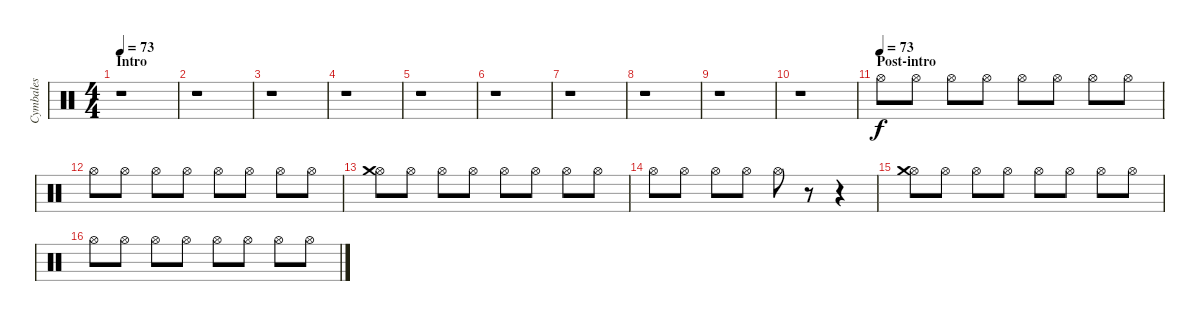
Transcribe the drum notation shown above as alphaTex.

\track ("Cymbales" "Cymbales") {instrument percussion}
\staff {score}
\articulation defaults
\ts (4 4)
\section ("" "Intro")
\tempo 73
\tempo 68
\tempo 73
\clef neutral
\ks c
r.1{dy f} |
r.1 |
r.1 |
r.1 |
r.1 |
r.1 |
r.1 |
r.1 |
r.1 |
r.1 |
\section ("" "Post-intro")
\tempo (73)
"Hi-Hat (open)".8 "Hi-Hat (open)".8 "Hi-Hat (open)".8 "Hi-Hat (open)".8 "Hi-Hat (open)".8 "Hi-Hat (open)".8 "Hi-Hat (open)".8 "Hi-Hat (open)".8 |
"Hi-Hat (open)".8 "Hi-Hat (open)".8 "Hi-Hat (open)".8 "Hi-Hat (open)".8 "Hi-Hat (open)".8 "Hi-Hat (open)".8 "Hi-Hat (open)".8 "Hi-Hat (open)".8 |
("Hi-Hat (open)" "Crash medium (hit)").8 "Hi-Hat (open)".8 "Hi-Hat (open)".8 "Hi-Hat (open)".8 "Hi-Hat (open)".8 "Hi-Hat (open)".8 "Hi-Hat (open)".8 "Hi-Hat (open)".8 |
"Hi-Hat (open)".8 "Hi-Hat (open)".8 "Hi-Hat (open)".8 "Hi-Hat (open)".8 "Hi-Hat (open)".8 r.8 r.4 |
("Hi-Hat (open)" "Crash medium (hit)").8 "Hi-Hat (open)".8 "Hi-Hat (open)".8 "Hi-Hat (open)".8 "Hi-Hat (open)".8 "Hi-Hat (open)".8 "Hi-Hat (open)".8 "Hi-Hat (open)".8 |
"Hi-Hat (open)".8 "Hi-Hat (open)".8 "Hi-Hat (open)".8 "Hi-Hat (open)".8 "Hi-Hat (open)".8 "Hi-Hat (open)".8 "Hi-Hat (open)".8 "Hi-Hat (open)".8
